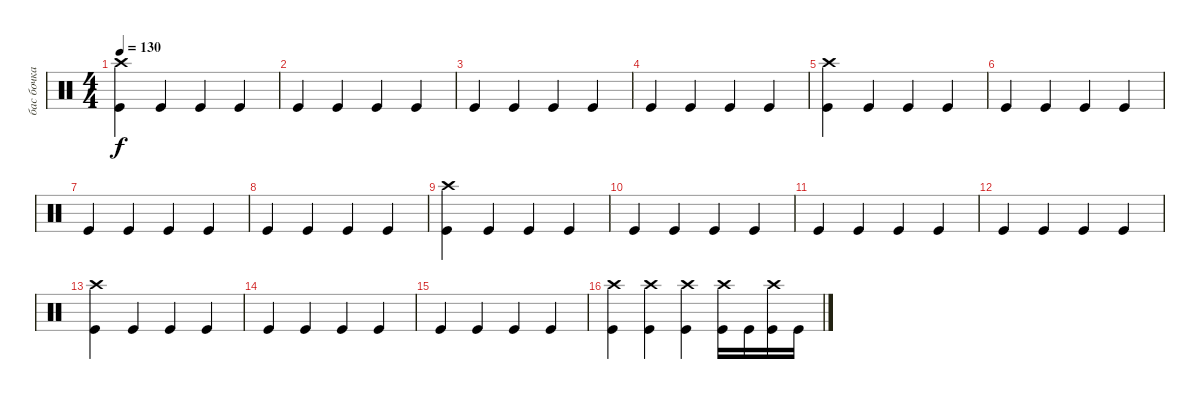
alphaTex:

\track ("бас бочка" "бас бочка") {instrument percussion}
\staff {score}
\articulation defaults
\ts (4 4)
\tempo 130
\clef neutral
\ks c
("Crash high (hit)" "Kick (hit)").4{dy f} "Kick (hit)".4 "Kick (hit)".4 "Kick (hit)".4 |
"Kick (hit)".4 "Kick (hit)".4 "Kick (hit)".4 "Kick (hit)".4 |
"Kick (hit)".4 "Kick (hit)".4 "Kick (hit)".4 "Kick (hit)".4 |
"Kick (hit)".4 "Kick (hit)".4 "Kick (hit)".4 "Kick (hit)".4 |
("Crash high (hit)" "Kick (hit)").4 "Kick (hit)".4 "Kick (hit)".4 "Kick (hit)".4 |
"Kick (hit)".4 "Kick (hit)".4 "Kick (hit)".4 "Kick (hit)".4 |
"Kick (hit)".4 "Kick (hit)".4 "Kick (hit)".4 "Kick (hit)".4 |
"Kick (hit)".4 "Kick (hit)".4 "Kick (hit)".4 "Kick (hit)".4 |
("Crash high (hit)" "Kick (hit)").4 "Kick (hit)".4 "Kick (hit)".4 "Kick (hit)".4 |
"Kick (hit)".4 "Kick (hit)".4 "Kick (hit)".4 "Kick (hit)".4 |
"Kick (hit)".4 "Kick (hit)".4 "Kick (hit)".4 "Kick (hit)".4 |
"Kick (hit)".4 "Kick (hit)".4 "Kick (hit)".4 "Kick (hit)".4 |
("Crash high (hit)" "Kick (hit)").4 "Kick (hit)".4 "Kick (hit)".4 "Kick (hit)".4 |
"Kick (hit)".4 "Kick (hit)".4 "Kick (hit)".4 "Kick (hit)".4 |
"Kick (hit)".4 "Kick (hit)".4 "Kick (hit)".4 "Kick (hit)".4 |
("Crash high (hit)" "Kick (hit)").4 ("Crash high (hit)" "Kick (hit)").4 ("Crash high (hit)" "Kick (hit)").4 ("Crash high (hit)" "Kick (hit)").16 "Kick (hit)".16 ("Crash high (hit)" "Kick (hit)").16 "Kick (hit)".16
